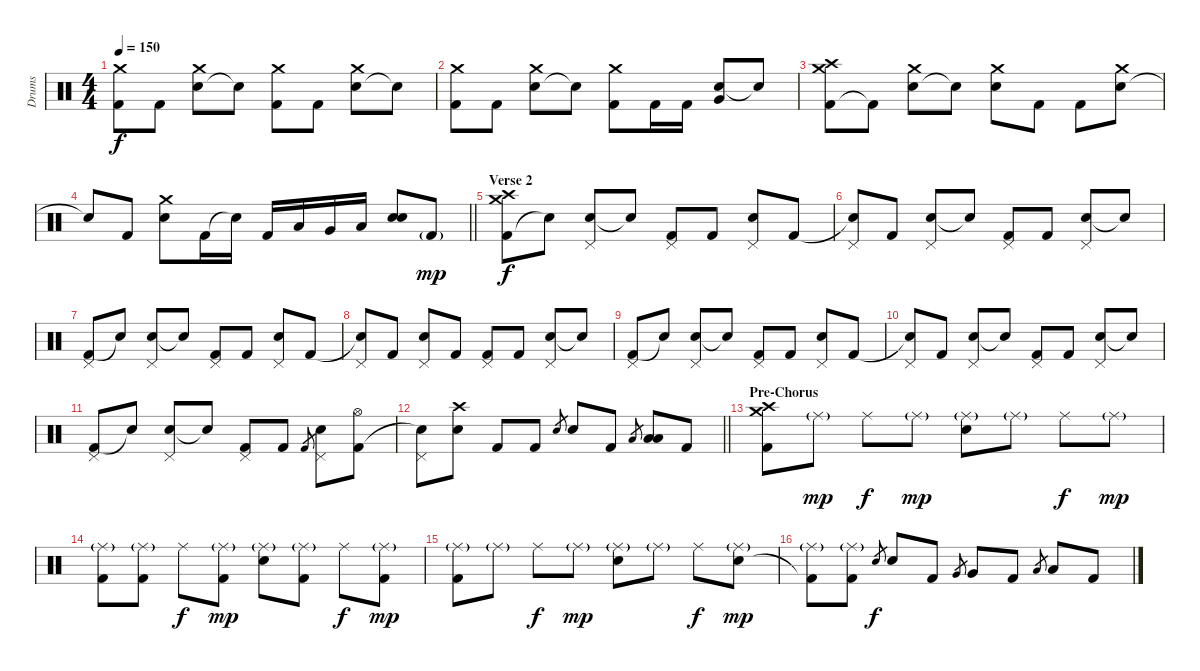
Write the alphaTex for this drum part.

\track ("Drums" "Drums") {instrument percussion}
\staff {score}
\articulation defaults
\ts (4 4)
\tempo 150
\clef neutral
\ks c
("Kick (hit) 2" "Crash medium (hit)").8{dy f} "Kick (hit) 2".8 ("Electric Snare (hit)" "Crash medium (hit)").8 "Snare (hit)"{t}.8 ("Kick (hit) 2" "Crash medium (hit)").8 "Kick (hit) 2".8 ("Electric Snare (hit)" "Crash medium (hit)").8 "Snare (hit)"{t}.8 |
("Kick (hit) 2" "Crash medium (hit)").8 "Kick (hit) 2".8 ("Electric Snare (hit)" "Crash medium (hit)").8 "Snare (hit)"{t}.8 ("Kick (hit) 2" "Crash medium (hit)").8 "Kick (hit) 2".16 "Kick (hit) 2".16 ("Electric Snare (hit)" "Very Low Tom (hit)").8 "Snare (hit)"{t}.8 |
("Kick (hit) 2" "Crash medium (hit)" "Crash high (hit)").8 "Kick (hit) 2"{t}.8 ("Electric Snare (hit)" "Crash medium (hit)").8 "Snare (hit)"{t}.8 ("Electric Snare (hit)" "Crash medium (hit)").8 "Kick (hit) 2".8 "Kick (hit) 2".8 ("Electric Snare (hit)" "Crash medium (hit)").8 |
\barLineRight lightlight "Electric Snare (hit)"{t}.8 "Kick (hit) 2".8
("Electric Snare (hit)" "Crash medium (hit)").8 "Kick (hit) 2".16 "Electric Snare (hit)"{t}.16 "Kick (hit) 2".16 "Low Tom (hit)".16 "Very Low Tom (hit)".16 "Low Floor Tom (hit)".16 ("Electric Snare (hit)" "Electric Snare (hit)").8 "Kick (hit) 2"{g}.8{dy mp} |
\section ("" "Verse 2")
("Kick (hit) 2" "Crash medium (hit)" "Crash high (hit)").8{dy f} "Snare (hit)"{t}.8 ("Electric Snare (hit)" "Pedal Hi-Hat (hit)").8 "Snare (hit)"{t}.8 ("Kick (hit) 2" "Pedal Hi-Hat (hit)").8 "Kick (hit) 2".8 ("Electric Snare (hit)" "Pedal Hi-Hat (hit)").8 "Kick (hit) 2".8 |
("Snare (hit)"{t} "Pedal Hi-Hat (hit)").8 "Kick (hit) 2".8 ("Electric Snare (hit)" "Pedal Hi-Hat (hit)").8 "Snare (hit)"{t}.8 ("Kick (hit) 2" "Pedal Hi-Hat (hit)").8 "Kick (hit) 2".8 ("Electric Snare (hit)" "Pedal Hi-Hat (hit)").8 "Snare (hit)"{t}.8 |
("Kick (hit) 2" "Pedal Hi-Hat (hit)").8 "Snare (hit)"{t}.8 ("Electric Snare (hit)" "Pedal Hi-Hat (hit)").8 "Snare (hit)"{t}.8 ("Kick (hit) 2" "Pedal Hi-Hat (hit)").8 "Kick (hit) 2".8 ("Electric Snare (hit)" "Pedal Hi-Hat (hit)").8 "Kick (hit) 2".8 |
("Snare (hit)"{t} "Pedal Hi-Hat (hit)").8 "Kick (hit) 2".8 ("Electric Snare (hit)" "Pedal Hi-Hat (hit)").8 "Kick (hit) 2".8 ("Kick (hit) 2" "Pedal Hi-Hat (hit)").8 "Kick (hit) 2".8 ("Electric Snare (hit)" "Pedal Hi-Hat (hit)").8 "Snare (hit)"{t}.8 |
("Kick (hit) 2" "Pedal Hi-Hat (hit)").8 "Snare (hit)"{t}.8 ("Electric Snare (hit)" "Pedal Hi-Hat (hit)").8 "Snare (hit)"{t}.8 ("Kick (hit) 2" "Pedal Hi-Hat (hit)").8 "Kick (hit) 2".8 ("Electric Snare (hit)" "Pedal Hi-Hat (hit)").8 "Kick (hit) 2".8 |
("Snare (hit)"{t} "Pedal Hi-Hat (hit)").8 "Kick (hit) 2".8 ("Electric Snare (hit)" "Pedal Hi-Hat (hit)").8 "Snare (hit)"{t}.8 ("Kick (hit) 2" "Pedal Hi-Hat (hit)").8 "Kick (hit) 2".8 ("Electric Snare (hit)" "Pedal Hi-Hat (hit)").8 "Snare (hit)"{t}.8 |
("Kick (hit) 2" "Pedal Hi-Hat (hit)").8 "Snare (hit)"{t}.8 ("Electric Snare (hit)" "Pedal Hi-Hat (hit)").8 "Snare (hit)"{t}.8 ("Kick (hit) 2" "Pedal Hi-Hat (hit)").8 "Kick (hit) 2".8 "Kick (hit) 2".8{gr} ("Electric Snare (hit)" "Pedal Hi-Hat (hit)").8 ("Kick (hit) 2" "Hi-Hat (open)").8 |
\barLineRight lightlight
("Snare (hit)"{t} "Pedal Hi-Hat (hit)").8 ("Electric Snare (hit)" "Crash high (hit)").8 "Kick (hit) 2".8 "Kick (hit) 2".8 "Electric Snare (hit)".8{gr} "Electric Snare (hit)".8 "Kick (hit) 2".8 "Low Tom (hit)".8{gr} ("Low Tom (hit)" "Low Floor Tom (hit)").8 "Kick (hit) 2".8 |
\section ("" "Pre-Chorus")
("Kick (hit) 2" "Crash medium (hit)" "Crash high (hit)").8 "Ride (middle)"{g}.8{dy mp} "Ride (middle)".8{dy f} "Ride (middle)"{g}.8{dy mp} ("Electric Snare (hit)" "Ride (middle)"{g}).8 "Ride (middle)"{g}.8 "Ride (middle)".8{dy f} "Ride (middle)"{g}.8{dy mp} |
("Kick (hit) 2" "Ride (middle)"{g}).8 ("Kick (hit) 2" "Ride (middle)"{g}).8 "Ride (middle)".8{dy f} ("Kick (hit) 2" "Ride (middle)"{g}).8{dy mp} ("Electric Snare (hit)" "Ride (middle)"{g}).8 ("Kick (hit) 2" "Ride (middle)"{g}).8 "Ride (middle)".8{dy f} ("Kick (hit) 2" "Ride (middle)"{g}).8{dy mp} |
("Kick (hit) 2" "Ride (middle)"{g}).8 "Ride (middle)"{g}.8 "Ride (middle)".8{dy f} "Ride (middle)"{g}.8{dy mp} ("Electric Snare (hit)" "Ride (middle)"{g}).8 "Ride (middle)"{g}.8 "Ride (middle)".8{dy f} ("Electric Snare (hit)" "Ride (middle)"{g}).8{dy mp} |
("Kick (hit) 2"{t} "Ride (middle)"{g}).8 ("Kick (hit) 2" "Ride (middle)"{g}).8 "Electric Snare (hit)".8{gr dy f} "Electric Snare (hit)".8 "Kick (hit) 2".8 "Very Low Tom (hit)".8{gr} "Very Low Tom (hit)".8 "Kick (hit) 2".8 "Low Floor Tom (hit)".8{gr} "Low Floor Tom (hit)".8 "Kick (hit) 2".8
